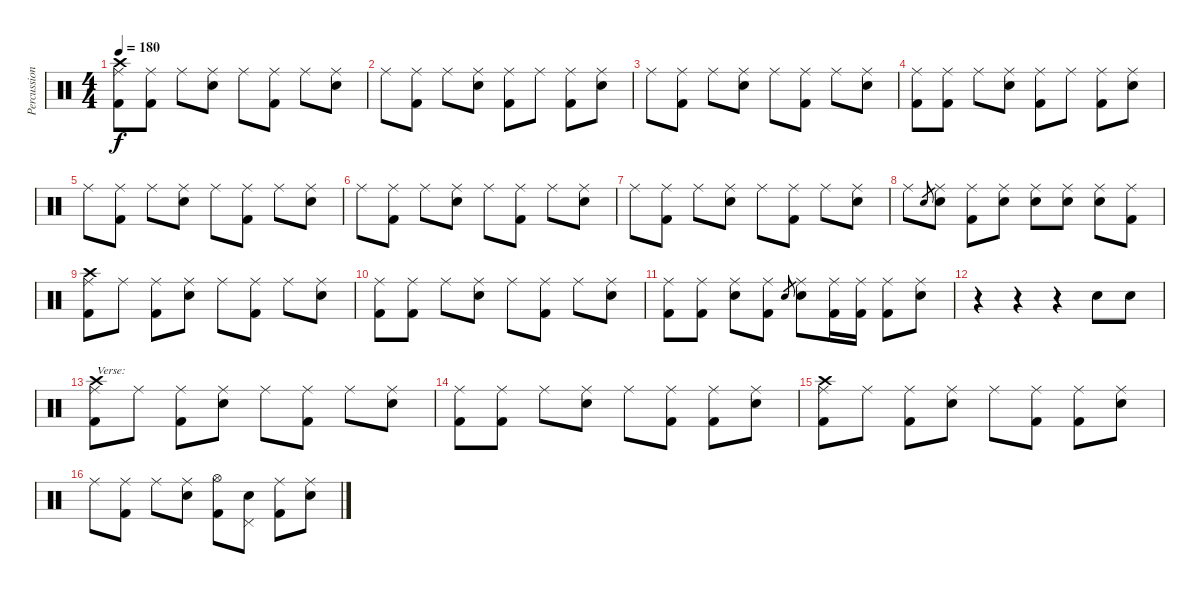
\track ("Percussion" "Percussion") {instrument percussion}
\staff {score}
\articulation defaults
\ts (4 4)
\tempo 180
\clef neutral
\ks c
("Ride (middle)" "Crash high (hit)" "Kick (hit) 2").8{dy f} ("Ride (middle)" "Kick (hit) 2").8 "Ride (middle)".8 ("Ride (middle)" "Electric Snare (hit)").8 "Ride (middle)".8 ("Ride (middle)" "Kick (hit) 2").8 "Ride (middle)".8 ("Ride (middle)" "Electric Snare (hit)").8 |
"Ride (middle)".8 ("Ride (middle)" "Kick (hit) 2").8 "Ride (middle)".8 ("Ride (middle)" "Electric Snare (hit)").8 ("Ride (middle)" "Kick (hit) 2").8 "Ride (middle)".8 ("Ride (middle)" "Kick (hit) 2").8 ("Ride (middle)" "Electric Snare (hit)").8 |
"Ride (middle)".8 ("Ride (middle)" "Kick (hit) 2").8 "Ride (middle)".8 ("Ride (middle)" "Electric Snare (hit)").8 "Ride (middle)".8 ("Ride (middle)" "Kick (hit) 2").8 "Ride (middle)".8 ("Ride (middle)" "Electric Snare (hit)").8 |
("Ride (middle)" "Kick (hit) 2").8 ("Ride (middle)" "Kick (hit) 2").8 "Ride (middle)".8 ("Ride (middle)" "Electric Snare (hit)").8 ("Ride (middle)" "Kick (hit) 2").8 "Ride (middle)".8 ("Ride (middle)" "Kick (hit) 2").8 ("Ride (middle)" "Electric Snare (hit)").8 |
"Ride (middle)".8 ("Ride (middle)" "Kick (hit) 2").8 "Ride (middle)".8 ("Ride (middle)" "Electric Snare (hit)").8 "Ride (middle)".8 ("Ride (middle)" "Kick (hit) 2").8 "Ride (middle)".8 ("Ride (middle)" "Electric Snare (hit)").8 |
"Ride (middle)".8 ("Ride (middle)" "Kick (hit) 2").8 "Ride (middle)".8 ("Ride (middle)" "Electric Snare (hit)").8 "Ride (middle)".8 ("Ride (middle)" "Kick (hit) 2").8 "Ride (middle)".8 ("Ride (middle)" "Electric Snare (hit)").8 |
"Ride (middle)".8 ("Ride (middle)" "Kick (hit) 2").8 "Ride (middle)".8 ("Ride (middle)" "Electric Snare (hit)").8 "Ride (middle)".8 ("Ride (middle)" "Kick (hit) 2").8 "Ride (middle)".8 ("Ride (middle)" "Electric Snare (hit)").8 |
"Ride (middle)".8 "Electric Snare (hit)".8{gr} ("Ride (middle)" "Electric Snare (hit)").8 ("Ride (middle)" "Kick (hit) 2").8 ("Ride (middle)" "Electric Snare (hit)").8 ("Ride (middle)" "Electric Snare (hit)").8 ("Ride (middle)" "Electric Snare (hit)").8 ("Ride (middle)" "Electric Snare (hit)").8 ("Ride (middle)" "Kick (hit) 2").8 |
("Ride (middle)" "Crash high (hit)" "Kick (hit) 2").8 "Ride (middle)".8 ("Ride (middle)" "Kick (hit) 2").8 ("Ride (middle)" "Electric Snare (hit)").8 "Ride (middle)".8 ("Ride (middle)" "Kick (hit) 2").8 "Ride (middle)".8 ("Ride (middle)" "Electric Snare (hit)").8 |
("Ride (middle)" "Kick (hit) 2").8 ("Ride (middle)" "Kick (hit) 2").8 "Ride (middle)".8 ("Ride (middle)" "Electric Snare (hit)").8 "Ride (middle)".8 ("Ride (middle)" "Kick (hit) 2").8 "Ride (middle)".8 ("Ride (middle)" "Electric Snare (hit)").8 |
("Ride (middle)" "Kick (hit) 2").8 ("Ride (middle)" "Kick (hit) 2").8 ("Ride (middle)" "Electric Snare (hit)").8 ("Ride (middle)" "Kick (hit) 2").8 "Electric Snare (hit)".8{gr} ("Ride (middle)" "Electric Snare (hit)").8 ("Ride (middle)" "Kick (hit) 2").16 ("Ride (middle)" "Kick (hit) 2").16 ("Ride (middle)" "Kick (hit) 2").8 ("Ride (middle)" "Electric Snare (hit)").8 |
r.4 r.4 r.4 "Electric Snare (hit)".8 "Electric Snare (hit)".8 |
("Ride (middle)" "Crash high (hit)" "Kick (hit) 2").8{txt "Verse:"} "Ride (middle)".8 ("Ride (middle)" "Kick (hit) 2").8 ("Ride (middle)" "Electric Snare (hit)").8 "Ride (middle)".8 ("Ride (middle)" "Kick (hit) 2").8 "Ride (middle)".8 ("Ride (middle)" "Electric Snare (hit)").8 |
("Ride (middle)" "Kick (hit) 2").8 ("Ride (middle)" "Kick (hit) 2").8 "Ride (middle)".8 ("Ride (middle)" "Electric Snare (hit)").8 "Ride (middle)".8 ("Ride (middle)" "Kick (hit) 2").8 ("Ride (middle)" "Kick (hit) 2").8 ("Ride (middle)" "Electric Snare (hit)").8 |
("Ride (middle)" "Crash high (hit)" "Kick (hit) 2").8 "Ride (middle)".8 ("Ride (middle)" "Kick (hit) 2").8 ("Ride (middle)" "Electric Snare (hit)").8 "Ride (middle)".8 ("Ride (middle)" "Kick (hit) 2").8 ("Ride (middle)" "Kick (hit) 2").8 ("Ride (middle)" "Electric Snare (hit)").8 |
"Ride (middle)".8 ("Ride (middle)" "Kick (hit) 2").8 "Ride (middle)".8 ("Ride (middle)" "Electric Snare (hit)").8 ("Hi-Hat (open)" "Kick (hit) 2").8 ("Pedal Hi-Hat (hit)" "Electric Snare (hit)").8 ("Ride (middle)" "Kick (hit) 2").8 ("Ride (middle)" "Electric Snare (hit)").8
